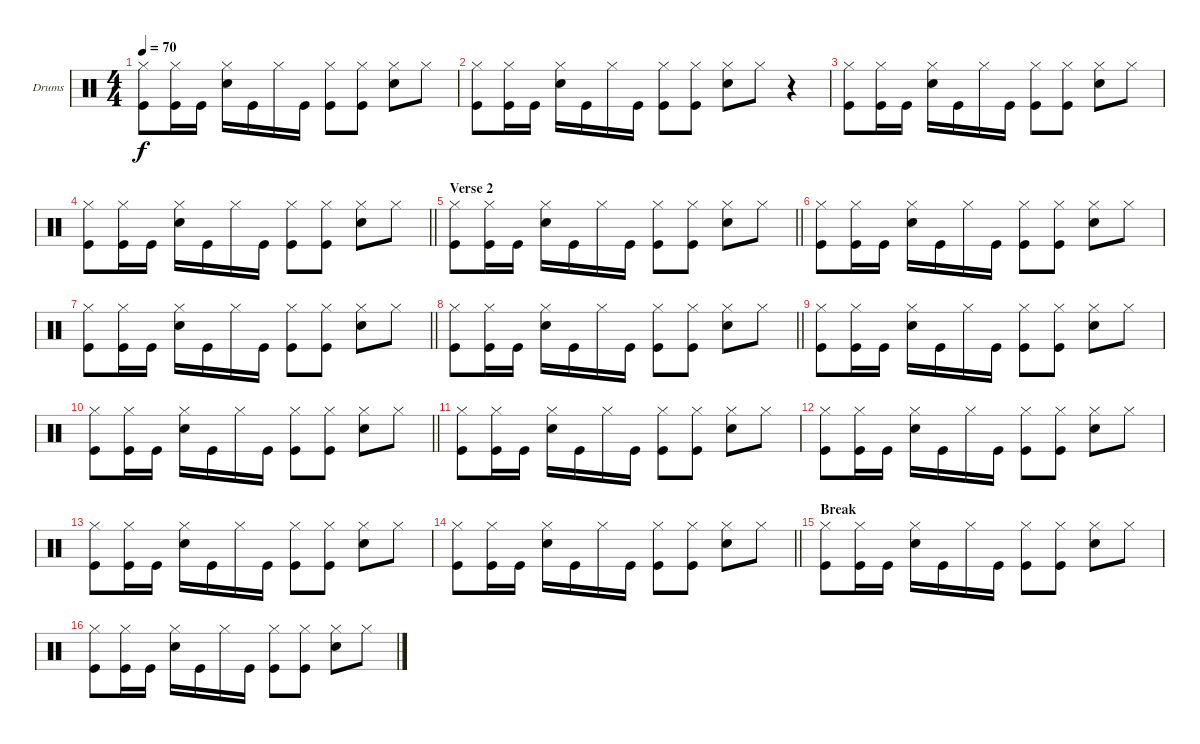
\bracketExtendMode groupsimilarinstruments
\firstSystemTrackNameOrientation horizontal
\otherSystemsTrackNameOrientation horizontal
\track ("Drumkit" "Drums") {instrument percussion}
\staff {score}
\articulation defaults
\ts (4 4)
\tempo 70
\clef neutral
\ks c
("Hi-Hat (closed)" "Kick (hit)").8{dy f} ("Hi-Hat (closed)" "Kick (hit)").16 "Kick (hit)".16 ("Hi-Hat (closed)" "Snare (hit) 2").16 "Kick (hit)".16 "Hi-Hat (closed)".16 "Kick (hit)".16 ("Hi-Hat (closed)" "Kick (hit)").8 ("Hi-Hat (closed)" "Kick (hit)").8 ("Hi-Hat (closed)" "Snare (hit) 2").8 "Hi-Hat (closed)".8 |
("Hi-Hat (closed)" "Kick (hit)").8 ("Hi-Hat (closed)" "Kick (hit)").16 "Kick (hit)".16 ("Hi-Hat (closed)" "Snare (hit) 2").16 "Kick (hit)".16 "Hi-Hat (closed)".16 "Kick (hit)".16 ("Hi-Hat (closed)" "Kick (hit)").8 ("Hi-Hat (closed)" "Kick (hit)").8 ("Hi-Hat (closed)" "Snare (hit) 2").8 "Hi-Hat (closed)".8 r.4 |
("Hi-Hat (closed)" "Kick (hit)").8 ("Hi-Hat (closed)" "Kick (hit)").16 "Kick (hit)".16 ("Hi-Hat (closed)" "Snare (hit) 2").16 "Kick (hit)".16 "Hi-Hat (closed)".16 "Kick (hit)".16 ("Hi-Hat (closed)" "Kick (hit)").8 ("Hi-Hat (closed)" "Kick (hit)").8 ("Hi-Hat (closed)" "Snare (hit) 2").8 "Hi-Hat (closed)".8 |
\barLineRight lightlight
("Hi-Hat (closed)" "Kick (hit)").8 ("Hi-Hat (closed)" "Kick (hit)").16 "Kick (hit)".16 ("Hi-Hat (closed)" "Snare (hit) 2").16 "Kick (hit)".16 "Hi-Hat (closed)".16 "Kick (hit)".16 ("Hi-Hat (closed)" "Kick (hit)").8 ("Hi-Hat (closed)" "Kick (hit)").8 ("Hi-Hat (closed)" "Snare (hit) 2").8 "Hi-Hat (closed)".8 |
\section ("" "Verse 2")
\barLineRight lightlight
("Hi-Hat (closed)" "Kick (hit)").8 ("Hi-Hat (closed)" "Kick (hit)").16 "Kick (hit)".16 ("Hi-Hat (closed)" "Snare (hit) 2").16 "Kick (hit)".16 "Hi-Hat (closed)".16 "Kick (hit)".16 ("Hi-Hat (closed)" "Kick (hit)").8 ("Hi-Hat (closed)" "Kick (hit)").8 ("Hi-Hat (closed)" "Snare (hit) 2").8 "Hi-Hat (closed)".8 |
("Hi-Hat (closed)" "Kick (hit)").8 ("Hi-Hat (closed)" "Kick (hit)").16 "Kick (hit)".16 ("Hi-Hat (closed)" "Snare (hit) 2").16 "Kick (hit)".16 "Hi-Hat (closed)".16 "Kick (hit)".16 ("Hi-Hat (closed)" "Kick (hit)").8 ("Hi-Hat (closed)" "Kick (hit)").8 ("Hi-Hat (closed)" "Snare (hit) 2").8 "Hi-Hat (closed)".8 |
\barLineRight lightlight
("Hi-Hat (closed)" "Kick (hit)").8 ("Hi-Hat (closed)" "Kick (hit)").16 "Kick (hit)".16 ("Hi-Hat (closed)" "Snare (hit) 2").16 "Kick (hit)".16 "Hi-Hat (closed)".16 "Kick (hit)".16 ("Hi-Hat (closed)" "Kick (hit)").8 ("Hi-Hat (closed)" "Kick (hit)").8 ("Hi-Hat (closed)" "Snare (hit) 2").8 "Hi-Hat (closed)".8 |
\barLineRight lightlight
("Hi-Hat (closed)" "Kick (hit)").8 ("Hi-Hat (closed)" "Kick (hit)").16 "Kick (hit)".16 ("Hi-Hat (closed)" "Snare (hit) 2").16 "Kick (hit)".16 "Hi-Hat (closed)".16 "Kick (hit)".16 ("Hi-Hat (closed)" "Kick (hit)").8 ("Hi-Hat (closed)" "Kick (hit)").8 ("Hi-Hat (closed)" "Snare (hit) 2").8 "Hi-Hat (closed)".8 |
("Hi-Hat (closed)" "Kick (hit)").8 ("Hi-Hat (closed)" "Kick (hit)").16 "Kick (hit)".16 ("Hi-Hat (closed)" "Snare (hit) 2").16 "Kick (hit)".16 "Hi-Hat (closed)".16 "Kick (hit)".16 ("Hi-Hat (closed)" "Kick (hit)").8 ("Hi-Hat (closed)" "Kick (hit)").8 ("Hi-Hat (closed)" "Snare (hit) 2").8 "Hi-Hat (closed)".8 |
\barLineRight lightlight
("Hi-Hat (closed)" "Kick (hit)").8 ("Hi-Hat (closed)" "Kick (hit)").16 "Kick (hit)".16 ("Hi-Hat (closed)" "Snare (hit) 2").16 "Kick (hit)".16 "Hi-Hat (closed)".16 "Kick (hit)".16 ("Hi-Hat (closed)" "Kick (hit)").8 ("Hi-Hat (closed)" "Kick (hit)").8 ("Hi-Hat (closed)" "Snare (hit) 2").8 "Hi-Hat (closed)".8 |
("Hi-Hat (closed)" "Kick (hit)").8 ("Hi-Hat (closed)" "Kick (hit)").16 "Kick (hit)".16 ("Hi-Hat (closed)" "Snare (hit) 2").16 "Kick (hit)".16 "Hi-Hat (closed)".16 "Kick (hit)".16 ("Hi-Hat (closed)" "Kick (hit)").8 ("Hi-Hat (closed)" "Kick (hit)").8 ("Hi-Hat (closed)" "Snare (hit) 2").8 "Hi-Hat (closed)".8 |
("Hi-Hat (closed)" "Kick (hit)").8 ("Hi-Hat (closed)" "Kick (hit)").16 "Kick (hit)".16 ("Hi-Hat (closed)" "Snare (hit) 2").16 "Kick (hit)".16 "Hi-Hat (closed)".16 "Kick (hit)".16 ("Hi-Hat (closed)" "Kick (hit)").8 ("Hi-Hat (closed)" "Kick (hit)").8 ("Hi-Hat (closed)" "Snare (hit) 2").8 "Hi-Hat (closed)".8 |
("Hi-Hat (closed)" "Kick (hit)").8 ("Hi-Hat (closed)" "Kick (hit)").16 "Kick (hit)".16 ("Hi-Hat (closed)" "Snare (hit) 2").16 "Kick (hit)".16 "Hi-Hat (closed)".16 "Kick (hit)".16 ("Hi-Hat (closed)" "Kick (hit)").8 ("Hi-Hat (closed)" "Kick (hit)").8 ("Hi-Hat (closed)" "Snare (hit) 2").8 "Hi-Hat (closed)".8 |
\barLineRight lightlight
("Hi-Hat (closed)" "Kick (hit)").8 ("Hi-Hat (closed)" "Kick (hit)").16 "Kick (hit)".16 ("Hi-Hat (closed)" "Snare (hit) 2").16 "Kick (hit)".16 "Hi-Hat (closed)".16 "Kick (hit)".16 ("Hi-Hat (closed)" "Kick (hit)").8 ("Hi-Hat (closed)" "Kick (hit)").8 ("Hi-Hat (closed)" "Snare (hit) 2").8 "Hi-Hat (closed)".8 |
\section ("" "Break")
("Hi-Hat (closed)" "Kick (hit)").8 ("Hi-Hat (closed)" "Kick (hit)").16 "Kick (hit)".16 ("Hi-Hat (closed)" "Snare (hit) 2").16 "Kick (hit)".16 "Hi-Hat (closed)".16 "Kick (hit)".16 ("Hi-Hat (closed)" "Kick (hit)").8 ("Hi-Hat (closed)" "Kick (hit)").8 ("Hi-Hat (closed)" "Snare (hit) 2").8 "Hi-Hat (closed)".8 |
("Hi-Hat (closed)" "Kick (hit)").8 ("Hi-Hat (closed)" "Kick (hit)").16 "Kick (hit)".16 ("Hi-Hat (closed)" "Snare (hit) 2").16 "Kick (hit)".16 "Hi-Hat (closed)".16 "Kick (hit)".16 ("Hi-Hat (closed)" "Kick (hit)").8 ("Hi-Hat (closed)" "Kick (hit)").8 ("Hi-Hat (closed)" "Snare (hit) 2").8 "Hi-Hat (closed)".8
